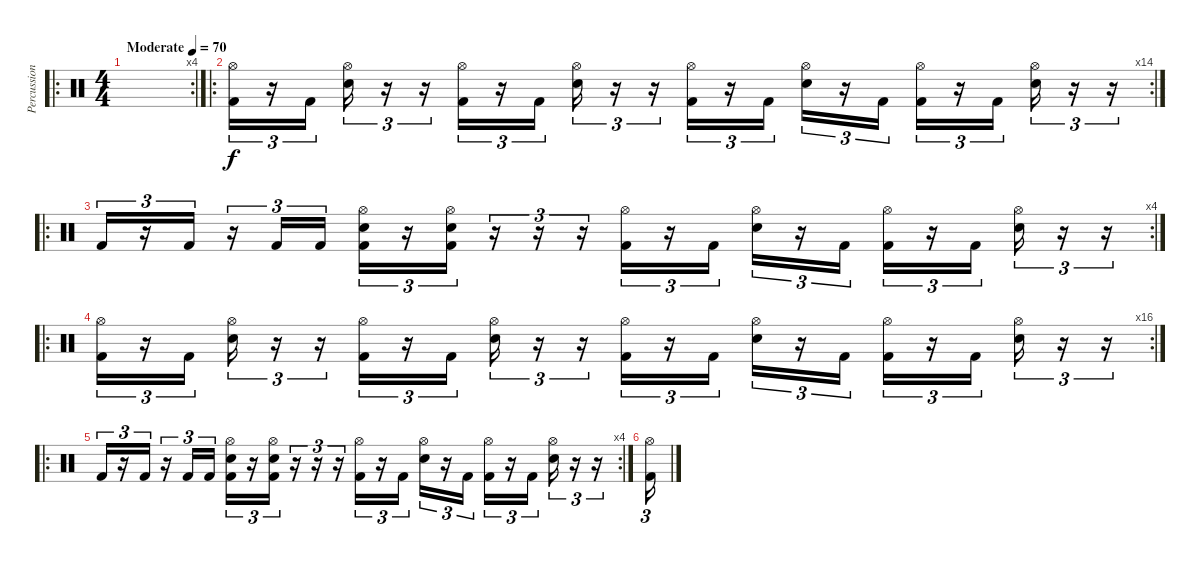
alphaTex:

\track ("Percussions" "Percussion") {instrument percussion}
\staff {score}
\articulation defaults
\ro
\rc 4
\ts (4 4)
\tempo (70 "Moderate")
\clef neutral
\ks c
|
\ro
\rc 14
("Hi-Hat (open)" "Kick (hit) 2").16{tu (3 2)} r.16{tu (3 2)} "Kick (hit) 2".16{tu (3 2)} ("Hi-Hat (open)" "Electric Snare (hit)").16{tu (3 2)} r.16{tu (3 2)} r.16{tu (3 2)} ("Hi-Hat (open)" "Kick (hit) 2").16{tu (3 2)} r.16{tu (3 2)} "Kick (hit) 2".16{tu (3 2)} ("Hi-Hat (open)" "Electric Snare (hit)").16{tu (3 2)} r.16{tu (3 2)} r.16{tu (3 2)} ("Hi-Hat (open)" "Kick (hit) 2").16{tu (3 2)} r.16{tu (3 2)} "Kick (hit) 2".16{tu (3 2)} ("Hi-Hat (open)" "Electric Snare (hit)").16{tu (3 2)} r.16{tu (3 2)} "Kick (hit) 2".16{tu (3 2)} ("Hi-Hat (open)" "Kick (hit) 2").16{tu (3 2)} r.16{tu (3 2)} "Kick (hit) 2".16{tu (3 2)} ("Hi-Hat (open)" "Electric Snare (hit)").16{tu (3 2)} r.16{tu (3 2)} r.16{tu (3 2)} |
\ro
\rc 4 "Kick (hit) 2".16{tu (3 2)}
r.16{tu (3 2)} "Kick (hit) 2".16{tu (3 2)} r.16{tu (3 2)} "Kick (hit) 2".16{tu (3 2)} "Kick (hit) 2".16{tu (3 2)} ("Hi-Hat (open)" "Electric Snare (hit)" "Kick (hit) 2").16{tu (3 2)} r.16{tu (3 2)} ("Hi-Hat (open)" "Electric Snare (hit)" "Kick (hit) 2").16{tu (3 2)} r.16{tu (3 2)} r.16{tu (3 2)} r.16{tu (3 2)} ("Hi-Hat (open)" "Kick (hit) 2").16{tu (3 2)} r.16{tu (3 2)} "Kick (hit) 2".16{tu (3 2)} ("Hi-Hat (open)" "Electric Snare (hit)").16{tu (3 2)} r.16{tu (3 2)} "Kick (hit) 2".16{tu (3 2)} ("Hi-Hat (open)" "Kick (hit) 2").16{tu (3 2)} r.16{tu (3 2)} "Kick (hit) 2".16{tu (3 2)} ("Hi-Hat (open)" "Electric Snare (hit)").16{tu (3 2)} r.16{tu (3 2)} r.16{tu (3 2)} |
\ro
\rc 16
("Hi-Hat (open)" "Kick (hit) 2").16{tu (3 2)} r.16{tu (3 2)} "Kick (hit) 2".16{tu (3 2)} ("Hi-Hat (open)" "Electric Snare (hit)").16{tu (3 2)} r.16{tu (3 2)} r.16{tu (3 2)} ("Hi-Hat (open)" "Kick (hit) 2").16{tu (3 2)} r.16{tu (3 2)} "Kick (hit) 2".16{tu (3 2)} ("Hi-Hat (open)" "Electric Snare (hit)").16{tu (3 2)} r.16{tu (3 2)} r.16{tu (3 2)} ("Hi-Hat (open)" "Kick (hit) 2").16{tu (3 2)} r.16{tu (3 2)} "Kick (hit) 2".16{tu (3 2)} ("Hi-Hat (open)" "Electric Snare (hit)").16{tu (3 2)} r.16{tu (3 2)} "Kick (hit) 2".16{tu (3 2)} ("Hi-Hat (open)" "Kick (hit) 2").16{tu (3 2)} r.16{tu (3 2)} "Kick (hit) 2".16{tu (3 2)} ("Hi-Hat (open)" "Electric Snare (hit)").16{tu (3 2)} r.16{tu (3 2)} r.16{tu (3 2)} |
\ro
\rc 4 "Kick (hit) 2".16{tu (3 2)}
r.16{tu (3 2)} "Kick (hit) 2".16{tu (3 2)} r.16{tu (3 2)} "Kick (hit) 2".16{tu (3 2)} "Kick (hit) 2".16{tu (3 2)} ("Hi-Hat (open)" "Electric Snare (hit)" "Kick (hit) 2").16{tu (3 2)} r.16{tu (3 2)} ("Hi-Hat (open)" "Electric Snare (hit)" "Kick (hit) 2").16{tu (3 2)} r.16{tu (3 2)} r.16{tu (3 2)} r.16{tu (3 2)} ("Hi-Hat (open)" "Kick (hit) 2").16{tu (3 2)} r.16{tu (3 2)} "Kick (hit) 2".16{tu (3 2)} ("Hi-Hat (open)" "Electric Snare (hit)").16{tu (3 2)} r.16{tu (3 2)} "Kick (hit) 2".16{tu (3 2)} ("Hi-Hat (open)" "Kick (hit) 2").16{tu (3 2)} r.16{tu (3 2)} "Kick (hit) 2".16{tu (3 2)} ("Hi-Hat (open)" "Electric Snare (hit)").16{tu (3 2)} r.16{tu (3 2)} r.16{tu (3 2)} |
("Hi-Hat (open)" "Kick (hit) 2").16{tu (3 2)}
